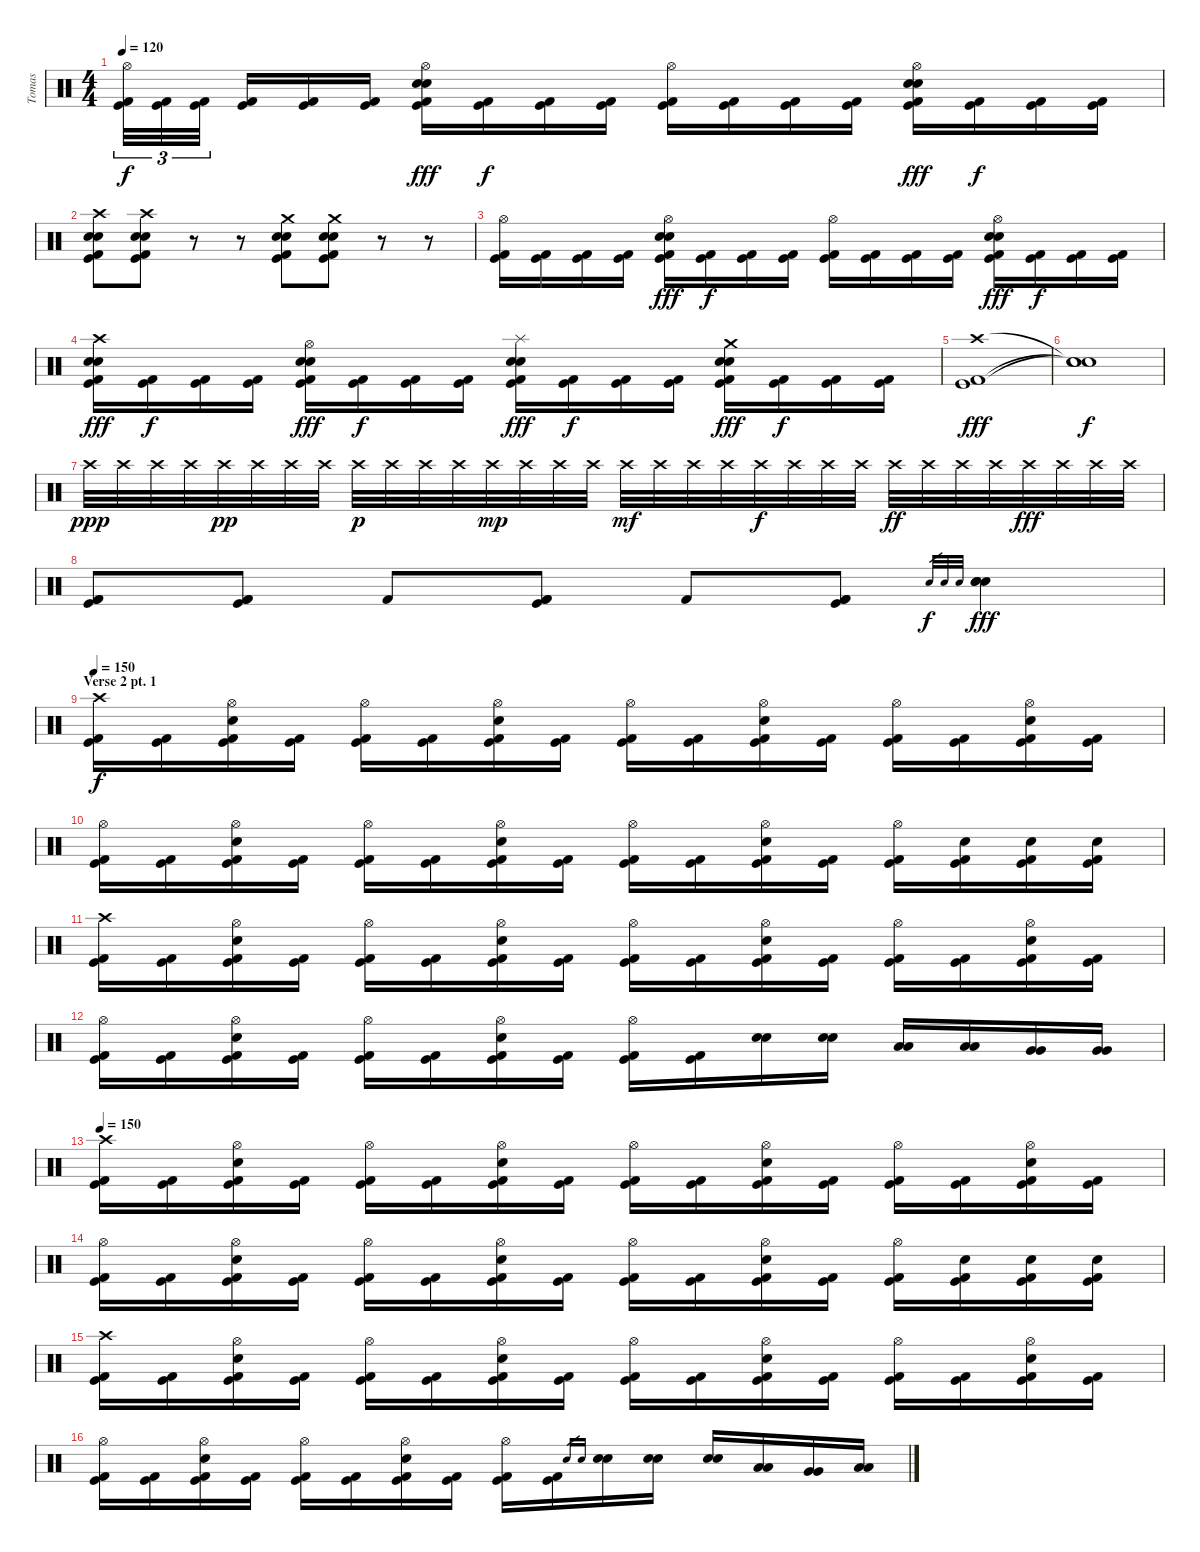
\track ("Tomas" "Tomas") {instrument percussion}
\staff {score}
\articulation defaults
\ts (4 4)
\tempo 120
\clef neutral
\ks c
("Hi-Hat (open)" "Kick (hit)" "Kick (hit) 2").32{tu (3 2) dy f} ("Kick (hit)" "Kick (hit) 2").32{tu (3 2)} ("Kick (hit)" "Kick (hit) 2").32{tu (3 2)} ("Kick (hit)" "Kick (hit) 2").16 ("Kick (hit)" "Kick (hit) 2").16 ("Kick (hit)" "Kick (hit) 2").16 ("Hi-Hat (open)" "Electric Snare (hit)" "Electric Snare (hit)" "Kick (hit)" "Kick (hit) 2").16{dy fff} ("Kick (hit)" "Kick (hit) 2").16{dy f} ("Kick (hit)" "Kick (hit) 2").16 ("Kick (hit)" "Kick (hit) 2").16 ("Hi-Hat (open)" "Kick (hit)" "Kick (hit) 2").16 ("Kick (hit)" "Kick (hit) 2").16 ("Kick (hit)" "Kick (hit) 2").16 ("Kick (hit)" "Kick (hit) 2").16 ("Hi-Hat (open)" "Electric Snare (hit)" "Electric Snare (hit)" "Kick (hit)" "Kick (hit) 2").16{dy fff} ("Kick (hit)" "Kick (hit) 2").16{dy f} ("Kick (hit)" "Kick (hit) 2").16 ("Kick (hit)" "Kick (hit) 2").16 |
("Crash high (hit)" "Kick (hit)" "Kick (hit) 2" "Electric Snare (hit)" "Electric Snare (hit)").8 ("Crash high (hit)" "Kick (hit)" "Kick (hit) 2" "Electric Snare (hit)" "Electric Snare (hit)").8 r.8 r.8 ("Crash medium (hit)" "Kick (hit)" "Kick (hit) 2" "Electric Snare (hit)" "Electric Snare (hit)").8 ("Crash medium (hit)" "Kick (hit)" "Kick (hit) 2" "Electric Snare (hit)" "Electric Snare (hit)").8 r.8 r.8 |
("Hi-Hat (open)" "Kick (hit)" "Kick (hit) 2").16 ("Kick (hit)" "Kick (hit) 2").16 ("Kick (hit)" "Kick (hit) 2").16 ("Kick (hit)" "Kick (hit) 2").16 ("Hi-Hat (open)" "Electric Snare (hit)" "Electric Snare (hit)" "Kick (hit)" "Kick (hit) 2").16{dy fff} ("Kick (hit)" "Kick (hit) 2").16{dy f} ("Kick (hit)" "Kick (hit) 2").16 ("Kick (hit)" "Kick (hit) 2").16 ("Hi-Hat (open)" "Kick (hit)" "Kick (hit) 2").16 ("Kick (hit)" "Kick (hit) 2").16 ("Kick (hit)" "Kick (hit) 2").16 ("Kick (hit)" "Kick (hit) 2").16 ("Hi-Hat (open)" "Electric Snare (hit)" "Electric Snare (hit)" "Kick (hit)" "Kick (hit) 2").16{dy fff} ("Kick (hit)" "Kick (hit) 2").16{dy f} ("Kick (hit)" "Kick (hit) 2").16 ("Kick (hit)" "Kick (hit) 2").16 |
("Crash high (hit)" "Electric Snare (hit)" "Electric Snare (hit)" "Kick (hit)" "Kick (hit) 2").16{dy fff} ("Kick (hit)" "Kick (hit) 2").16{dy f} ("Kick (hit)" "Kick (hit) 2").16 ("Kick (hit)" "Kick (hit) 2").16 ("Hi-Hat (open)" "Electric Snare (hit)" "Electric Snare (hit)" "Kick (hit)" "Kick (hit) 2").16{dy fff} ("Kick (hit)" "Kick (hit) 2").16{dy f} ("Kick (hit)" "Kick (hit) 2").16 ("Kick (hit)" "Kick (hit) 2").16 ("Splash (hit)" "Electric Snare (hit)" "Electric Snare (hit)" "Kick (hit)" "Kick (hit) 2").16{dy fff} ("Kick (hit)" "Kick (hit) 2").16{dy f} ("Kick (hit)" "Kick (hit) 2").16 ("Kick (hit)" "Kick (hit) 2").16 ("Crash medium (hit)" "Electric Snare (hit)" "Electric Snare (hit)" "Kick (hit)" "Kick (hit) 2").16{dy fff} ("Kick (hit)" "Kick (hit) 2").16{dy f} ("Kick (hit)" "Kick (hit) 2").16 ("Kick (hit)" "Kick (hit) 2").16 |
("Crash high (hit)" "Kick (hit)" "Kick (hit) 2").1{dy fff} |
("Snare (hit)"{t} "Snare (hit)"{t} "Snare (hit)"{t}).1{dy f} |
"Crash high (hit)".32{dy ppp} "Crash high (hit)".32 "Crash high (hit)".32 "Crash high (hit)".32 "Crash high (hit)".32{dy pp} "Crash high (hit)".32 "Crash high (hit)".32 "Crash high (hit)".32 "Crash high (hit)".32{dy p} "Crash high (hit)".32 "Crash high (hit)".32 "Crash high (hit)".32 "Crash high (hit)".32{dy mp} "Crash high (hit)".32 "Crash high (hit)".32 "Crash high (hit)".32 "Crash high (hit)".32{dy mf} "Crash high (hit)".32 "Crash high (hit)".32 "Crash high (hit)".32 "Crash high (hit)".32{dy f} "Crash high (hit)".32 "Crash high (hit)".32 "Crash high (hit)".32 "Crash high (hit)".32{dy ff} "Crash high (hit)".32 "Crash high (hit)".32 "Crash high (hit)".32 "Crash high (hit)".32{dy fff} "Crash high (hit)".32 "Crash high (hit)".32 "Crash high (hit)".32 |
("Kick (hit) 2" "Kick (hit)" "Kick (hit) 2").8 ("Kick (hit) 2" "Kick (hit)" "Kick (hit) 2").8 "Kick (hit) 2".8 ("Kick (hit) 2" "Kick (hit)" "Kick (hit) 2").8 "Kick (hit) 2".8 ("Kick (hit) 2" "Kick (hit)" "Kick (hit) 2").8 "Electric Snare (hit)".32{gr dy f} "Electric Snare (hit)".32{gr} "Electric Snare (hit)".32{gr} ("Electric Snare (hit)" "Electric Snare (hit)" "Electric Snare (hit)").4{dy fff} |
\section ("" "Verse 2 pt. 1")
\tempo 150
("Crash high (hit)" "Kick (hit)" "Kick (hit) 2").16{dy f} ("Kick (hit)" "Kick (hit) 2").16 ("Hi-Hat (open)" "Electric Snare (hit)" "Kick (hit)" "Kick (hit) 2").16 ("Kick (hit)" "Kick (hit) 2").16 ("Hi-Hat (open)" "Kick (hit)" "Kick (hit) 2").16 ("Kick (hit)" "Kick (hit) 2").16 ("Hi-Hat (open)" "Electric Snare (hit)" "Kick (hit)" "Kick (hit) 2").16 ("Kick (hit)" "Kick (hit) 2").16 ("Hi-Hat (open)" "Kick (hit)" "Kick (hit) 2").16 ("Kick (hit)" "Kick (hit) 2").16 ("Hi-Hat (open)" "Electric Snare (hit)" "Kick (hit)" "Kick (hit) 2").16 ("Kick (hit)" "Kick (hit) 2").16 ("Hi-Hat (open)" "Kick (hit)" "Kick (hit) 2").16 ("Kick (hit)" "Kick (hit) 2").16 ("Hi-Hat (open)" "Electric Snare (hit)" "Kick (hit)" "Kick (hit) 2").16 ("Kick (hit)" "Kick (hit) 2").16 |
("Hi-Hat (open)" "Kick (hit)" "Kick (hit) 2").16 ("Kick (hit)" "Kick (hit) 2").16 ("Hi-Hat (open)" "Electric Snare (hit)" "Kick (hit)" "Kick (hit) 2").16 ("Kick (hit)" "Kick (hit) 2").16 ("Hi-Hat (open)" "Kick (hit)" "Kick (hit) 2").16 ("Kick (hit)" "Kick (hit) 2").16 ("Hi-Hat (open)" "Electric Snare (hit)" "Kick (hit)" "Kick (hit) 2").16 ("Kick (hit)" "Kick (hit) 2").16 ("Hi-Hat (open)" "Kick (hit)" "Kick (hit) 2").16 ("Kick (hit)" "Kick (hit) 2").16 ("Hi-Hat (open)" "Electric Snare (hit)" "Kick (hit)" "Kick (hit) 2").16 ("Kick (hit)" "Kick (hit) 2").16 ("Hi-Hat (open)" "Kick (hit)" "Kick (hit) 2").16 ("Electric Snare (hit)" "Kick (hit)" "Kick (hit) 2").16 ("Electric Snare (hit)" "Kick (hit)" "Kick (hit) 2").16 ("Electric Snare (hit)" "Kick (hit)" "Kick (hit) 2").16 |
("Crash high (hit)" "Kick (hit)" "Kick (hit) 2").16 ("Kick (hit)" "Kick (hit) 2").16 ("Hi-Hat (open)" "Electric Snare (hit)" "Kick (hit)" "Kick (hit) 2").16 ("Kick (hit)" "Kick (hit) 2").16 ("Hi-Hat (open)" "Kick (hit)" "Kick (hit) 2").16 ("Kick (hit)" "Kick (hit) 2").16 ("Hi-Hat (open)" "Electric Snare (hit)" "Kick (hit)" "Kick (hit) 2").16 ("Kick (hit)" "Kick (hit) 2").16 ("Hi-Hat (open)" "Kick (hit)" "Kick (hit) 2").16 ("Kick (hit)" "Kick (hit) 2").16 ("Hi-Hat (open)" "Electric Snare (hit)" "Kick (hit)" "Kick (hit) 2").16 ("Kick (hit)" "Kick (hit) 2").16 ("Hi-Hat (open)" "Kick (hit)" "Kick (hit) 2").16 ("Kick (hit)" "Kick (hit) 2").16 ("Hi-Hat (open)" "Electric Snare (hit)" "Kick (hit)" "Kick (hit) 2").16 ("Kick (hit)" "Kick (hit) 2").16 |
("Hi-Hat (open)" "Kick (hit)" "Kick (hit) 2").16 ("Kick (hit)" "Kick (hit) 2").16 ("Hi-Hat (open)" "Electric Snare (hit)" "Kick (hit)" "Kick (hit) 2").16 ("Kick (hit)" "Kick (hit) 2").16 ("Hi-Hat (open)" "Kick (hit)" "Kick (hit) 2").16 ("Kick (hit)" "Kick (hit) 2").16 ("Hi-Hat (open)" "Electric Snare (hit)" "Kick (hit)" "Kick (hit) 2").16 ("Kick (hit)" "Kick (hit) 2").16 ("Hi-Hat (open)" "Kick (hit)" "Kick (hit) 2").16 ("Kick (hit)" "Kick (hit) 2").16 ("Electric Snare (hit)" "Electric Snare (hit)").16 ("Electric Snare (hit)" "Electric Snare (hit)").16 ("Low Tom (hit)" "Low Tom (hit)").16 ("Low Tom (hit)" "Low Tom (hit)").16 ("Very Low Tom (hit)" "Very Low Tom (hit)").16 ("Very Low Tom (hit)" "Very Low Tom (hit)").16 |
\tempo 150
("Crash high (hit)" "Kick (hit)" "Kick (hit) 2").16 ("Kick (hit)" "Kick (hit) 2").16 ("Hi-Hat (open)" "Electric Snare (hit)" "Kick (hit)" "Kick (hit) 2").16 ("Kick (hit)" "Kick (hit) 2").16 ("Hi-Hat (open)" "Kick (hit)" "Kick (hit) 2").16 ("Kick (hit)" "Kick (hit) 2").16 ("Hi-Hat (open)" "Electric Snare (hit)" "Kick (hit)" "Kick (hit) 2").16 ("Kick (hit)" "Kick (hit) 2").16 ("Hi-Hat (open)" "Kick (hit)" "Kick (hit) 2").16 ("Kick (hit)" "Kick (hit) 2").16 ("Hi-Hat (open)" "Electric Snare (hit)" "Kick (hit)" "Kick (hit) 2").16 ("Kick (hit)" "Kick (hit) 2").16 ("Hi-Hat (open)" "Kick (hit)" "Kick (hit) 2").16 ("Kick (hit)" "Kick (hit) 2").16 ("Hi-Hat (open)" "Electric Snare (hit)" "Kick (hit)" "Kick (hit) 2").16 ("Kick (hit)" "Kick (hit) 2").16 |
("Hi-Hat (open)" "Kick (hit)" "Kick (hit) 2").16 ("Kick (hit)" "Kick (hit) 2").16 ("Hi-Hat (open)" "Electric Snare (hit)" "Kick (hit)" "Kick (hit) 2").16 ("Kick (hit)" "Kick (hit) 2").16 ("Hi-Hat (open)" "Kick (hit)" "Kick (hit) 2").16 ("Kick (hit)" "Kick (hit) 2").16 ("Hi-Hat (open)" "Electric Snare (hit)" "Kick (hit)" "Kick (hit) 2").16 ("Kick (hit)" "Kick (hit) 2").16 ("Hi-Hat (open)" "Kick (hit)" "Kick (hit) 2").16 ("Kick (hit)" "Kick (hit) 2").16 ("Hi-Hat (open)" "Electric Snare (hit)" "Kick (hit)" "Kick (hit) 2").16 ("Kick (hit)" "Kick (hit) 2").16 ("Hi-Hat (open)" "Kick (hit)" "Kick (hit) 2").16 ("Electric Snare (hit)" "Kick (hit)" "Kick (hit) 2").16 ("Electric Snare (hit)" "Kick (hit)" "Kick (hit) 2").16 ("Electric Snare (hit)" "Kick (hit)" "Kick (hit) 2").16 |
("Crash high (hit)" "Kick (hit)" "Kick (hit) 2").16 ("Kick (hit)" "Kick (hit) 2").16 ("Hi-Hat (open)" "Electric Snare (hit)" "Kick (hit)" "Kick (hit) 2").16 ("Kick (hit)" "Kick (hit) 2").16 ("Hi-Hat (open)" "Kick (hit)" "Kick (hit) 2").16 ("Kick (hit)" "Kick (hit) 2").16 ("Hi-Hat (open)" "Electric Snare (hit)" "Kick (hit)" "Kick (hit) 2").16 ("Kick (hit)" "Kick (hit) 2").16 ("Hi-Hat (open)" "Kick (hit)" "Kick (hit) 2").16 ("Kick (hit)" "Kick (hit) 2").16 ("Hi-Hat (open)" "Electric Snare (hit)" "Kick (hit)" "Kick (hit) 2").16 ("Kick (hit)" "Kick (hit) 2").16 ("Hi-Hat (open)" "Kick (hit)" "Kick (hit) 2").16 ("Kick (hit)" "Kick (hit) 2").16 ("Hi-Hat (open)" "Electric Snare (hit)" "Kick (hit)" "Kick (hit) 2").16 ("Kick (hit)" "Kick (hit) 2").16 |
("Hi-Hat (open)" "Kick (hit)" "Kick (hit) 2").16 ("Kick (hit)" "Kick (hit) 2").16 ("Hi-Hat (open)" "Electric Snare (hit)" "Kick (hit)" "Kick (hit) 2").16 ("Kick (hit)" "Kick (hit) 2").16 ("Hi-Hat (open)" "Kick (hit)" "Kick (hit) 2").16 ("Kick (hit)" "Kick (hit) 2").16 ("Hi-Hat (open)" "Electric Snare (hit)" "Kick (hit)" "Kick (hit) 2").16 ("Kick (hit)" "Kick (hit) 2").16 ("Hi-Hat (open)" "Kick (hit)" "Kick (hit) 2").16 ("Kick (hit)" "Kick (hit) 2").16 "Electric Snare (hit)".16{gr} "Electric Snare (hit)".16{gr} ("Electric Snare (hit)" "Electric Snare (hit)").16 ("Electric Snare (hit)" "Electric Snare (hit)").16 ("Electric Snare (hit)" "Electric Snare (hit)").16 ("Low Tom (hit)" "Low Tom (hit)").16 ("Very Low Tom (hit)" "Very Low Tom (hit)").16 ("Low Floor Tom (hit)" "Low Floor Tom (hit)").16
